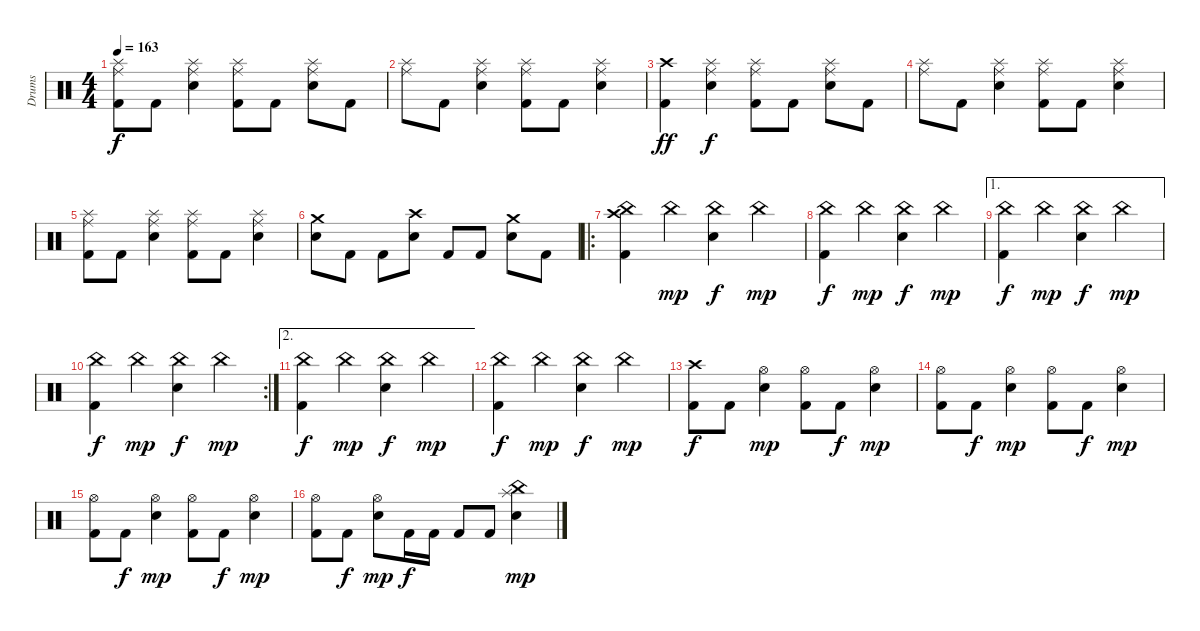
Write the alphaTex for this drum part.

\track ("Drums" "Drums") {instrument percussion}
\staff {score}
\articulation defaults
\ts (4 4)
\tempo 163
\clef neutral
\ks c
("Splash (hit)" "Ride (middle)" "Kick (hit) 2").8{dy f} "Kick (hit) 2".8 ("Splash (hit)" "Ride (middle)" "Electric Snare (hit)").4 ("Splash (hit)" "Ride (middle)" "Kick (hit) 2").8 "Kick (hit) 2".8 ("Splash (hit)" "Ride (middle)" "Electric Snare (hit)").8 "Kick (hit) 2".8 |
("Splash (hit)" "Ride (middle)").8 "Kick (hit) 2".8 ("Splash (hit)" "Ride (middle)" "Electric Snare (hit)").4 ("Splash (hit)" "Ride (middle)" "Kick (hit) 2").8 "Kick (hit) 2".8 ("Splash (hit)" "Ride (middle)" "Electric Snare (hit)").4 |
("Crash high (hit)" "Kick (hit) 2").4{dy ff} ("Splash (hit)" "Ride (middle)" "Electric Snare (hit)").4{dy f} ("Splash (hit)" "Ride (middle)" "Kick (hit) 2").8 "Kick (hit) 2".8 ("Splash (hit)" "Ride (middle)" "Electric Snare (hit)").8 "Kick (hit) 2".8 |
("Splash (hit)" "Ride (middle)").8 "Kick (hit) 2".8 ("Splash (hit)" "Ride (middle)" "Electric Snare (hit)").4 ("Splash (hit)" "Ride (middle)" "Kick (hit) 2").8 "Kick (hit) 2".8 ("Splash (hit)" "Ride (middle)" "Electric Snare (hit)").4 |
("Splash (hit)" "Ride (middle)" "Kick (hit) 2").8 "Kick (hit) 2".8 ("Splash (hit)" "Ride (middle)" "Electric Snare (hit)").4 ("Splash (hit)" "Ride (middle)" "Kick (hit) 2").8 "Kick (hit) 2".8 ("Splash (hit)" "Ride (middle)" "Electric Snare (hit)").4 |
("Crash medium (hit)" "Electric Snare (hit)").8 "Kick (hit) 2".8 "Kick (hit) 2".8 ("Crash high (hit)" "Electric Snare (hit)").8 "Kick (hit) 2".8 "Kick (hit) 2".8 ("Crash medium (hit)" "Electric Snare (hit)").8 "Kick (hit) 2".8 |
\ro
("Crash high (hit)" "China (hit)" "Kick (hit) 2").4 "China (hit)".4{dy mp} ("China (hit)" "Electric Snare (hit)").4{dy f} "China (hit)".4{dy mp} |
("China (hit)" "Kick (hit) 2").4{dy f} "China (hit)".4{dy mp} ("China (hit)" "Electric Snare (hit)").4{dy f} "China (hit)".4{dy mp} |
\ae 1
("China (hit)" "Kick (hit) 2").4{dy f} "China (hit)".4{dy mp} ("China (hit)" "Electric Snare (hit)").4{dy f} "China (hit)".4{dy mp} |
\rc 2
("China (hit)" "Kick (hit) 2").4{dy f} "China (hit)".4{dy mp} ("China (hit)" "Electric Snare (hit)").4{dy f} "China (hit)".4{dy mp} |
\ae 2
("China (hit)" "Kick (hit) 2").4{dy f} "China (hit)".4{dy mp} ("China (hit)" "Electric Snare (hit)").4{dy f} "China (hit)".4{dy mp} |
("China (hit)" "Kick (hit) 2").4{dy f} "China (hit)".4{dy mp} ("China (hit)" "Electric Snare (hit)").4{dy f} "China (hit)".4{dy mp} |
("Crash high (hit)" "Kick (hit) 2").8{dy f} "Kick (hit) 2".8 ("Hi-Hat (open)" "Electric Snare (hit)").4{dy mp} ("Hi-Hat (open)" "Kick (hit) 2").8 "Kick (hit) 2".8{dy f} ("Hi-Hat (open)" "Electric Snare (hit)").4{dy mp} |
("Hi-Hat (open)" "Kick (hit) 2").8 "Kick (hit) 2".8{dy f} ("Hi-Hat (open)" "Electric Snare (hit)").4{dy mp} ("Hi-Hat (open)" "Kick (hit) 2").8 "Kick (hit) 2".8{dy f} ("Hi-Hat (open)" "Electric Snare (hit)").4{dy mp} |
("Hi-Hat (open)" "Kick (hit) 2").8 "Kick (hit) 2".8{dy f} ("Hi-Hat (open)" "Electric Snare (hit)").4{dy mp} ("Hi-Hat (open)" "Kick (hit) 2").8 "Kick (hit) 2".8{dy f} ("Hi-Hat (open)" "Electric Snare (hit)").4{dy mp} |
("Hi-Hat (open)" "Kick (hit) 2").8 "Kick (hit) 2".8{dy f} ("Hi-Hat (open)" "Electric Snare (hit)").8{dy mp} "Kick (hit) 2".16{dy f} "Kick (hit) 2".16 "Kick (hit) 2".8 "Kick (hit) 2".8 ("China (hit)" "Splash (hit)" "Electric Snare (hit)").4{dy mp}
